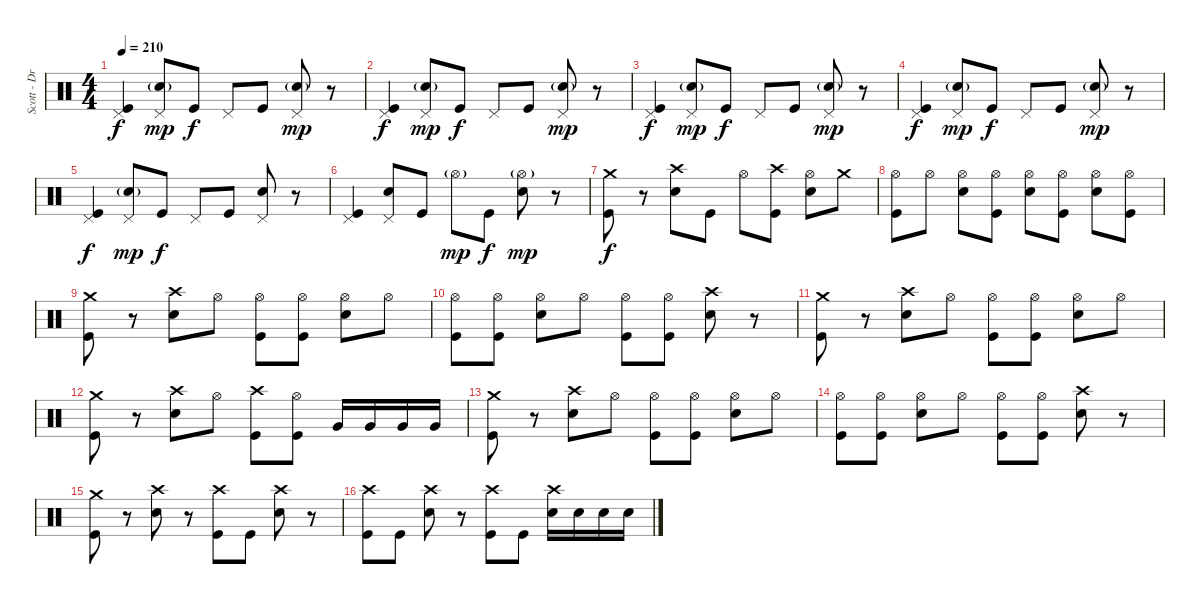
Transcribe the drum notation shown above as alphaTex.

\track ("Scott - Drums" "Scott - Dr") {instrument percussion}
\staff {score}
\articulation defaults
\ts (4 4)
\tempo 210
\clef neutral
\ks c
("Pedal Hi-Hat (hit)" "Kick (hit)").4{dy f} ("Pedal Hi-Hat (hit)" "Electric Snare (hit)"{g}).8{dy mp} "Kick (hit)".8{dy f} "Pedal Hi-Hat (hit)".8 "Kick (hit)".8 ("Pedal Hi-Hat (hit)" "Electric Snare (hit)"{g}).8{dy mp} r.8 |
("Pedal Hi-Hat (hit)" "Kick (hit)").4{dy f} ("Pedal Hi-Hat (hit)" "Electric Snare (hit)"{g}).8{dy mp} "Kick (hit)".8{dy f} "Pedal Hi-Hat (hit)".8 "Kick (hit)".8 ("Pedal Hi-Hat (hit)" "Electric Snare (hit)"{g}).8{dy mp} r.8 |
("Pedal Hi-Hat (hit)" "Kick (hit)").4{dy f} ("Pedal Hi-Hat (hit)" "Electric Snare (hit)"{g}).8{dy mp} "Kick (hit)".8{dy f} "Pedal Hi-Hat (hit)".8 "Kick (hit)".8 ("Pedal Hi-Hat (hit)" "Electric Snare (hit)"{g}).8{dy mp} r.8 |
("Pedal Hi-Hat (hit)" "Kick (hit)").4{dy f} ("Pedal Hi-Hat (hit)" "Electric Snare (hit)"{g}).8{dy mp} "Kick (hit)".8{dy f} "Pedal Hi-Hat (hit)".8 "Kick (hit)".8 ("Pedal Hi-Hat (hit)" "Electric Snare (hit)"{g}).8{dy mp} r.8 |
("Pedal Hi-Hat (hit)" "Kick (hit)").4{dy f} ("Pedal Hi-Hat (hit)" "Electric Snare (hit)"{g}).8{dy mp} "Kick (hit)".8{dy f} "Pedal Hi-Hat (hit)".8 "Kick (hit)".8 ("Pedal Hi-Hat (hit)" "Electric Snare (hit)").8 r.8 |
("Pedal Hi-Hat (hit)" "Kick (hit)").4 ("Pedal Hi-Hat (hit)" "Electric Snare (hit)").8 "Kick (hit)".8 "Hi-Hat (open)"{g}.8{dy mp} "Kick (hit)".8{dy f} ("Hi-Hat (open)"{g} "Electric Snare (hit)").8{dy mp} r.8 |
("Crash medium (hit)" "Kick (hit)").8{dy f} r.8 ("Crash high (hit)" "Electric Snare (hit)").8 "Kick (hit)".8 "Hi-Hat (open)".8 ("Crash high (hit)" "Kick (hit)").8 ("Hi-Hat (open)" "Electric Snare (hit)").8 "Crash medium (hit)".8 |
("Hi-Hat (open)" "Kick (hit)").8 "Hi-Hat (open)".8 ("Hi-Hat (open)" "Electric Snare (hit)").8 ("Hi-Hat (open)" "Kick (hit)").8 ("Hi-Hat (open)" "Electric Snare (hit)").8 ("Hi-Hat (open)" "Kick (hit)").8 ("Hi-Hat (open)" "Electric Snare (hit)").8 ("Hi-Hat (open)" "Kick (hit)").8 |
("Crash medium (hit)" "Kick (hit)").8 r.8 ("Crash high (hit)" "Electric Snare (hit)").8 "Hi-Hat (open)".8 ("Hi-Hat (open)" "Kick (hit)").8 ("Hi-Hat (open)" "Kick (hit)").8 ("Hi-Hat (open)" "Electric Snare (hit)").8 "Hi-Hat (open)".8 |
("Hi-Hat (open)" "Kick (hit)").8 ("Hi-Hat (open)" "Kick (hit)").8 ("Hi-Hat (open)" "Electric Snare (hit)").8 "Hi-Hat (open)".8 ("Hi-Hat (open)" "Kick (hit)").8 ("Hi-Hat (open)" "Kick (hit)").8 ("Crash high (hit)" "Electric Snare (hit)").8 r.8 |
("Crash medium (hit)" "Kick (hit)").8 r.8 ("Crash high (hit)" "Electric Snare (hit)").8 "Hi-Hat (open)".8 ("Hi-Hat (open)" "Kick (hit)").8 ("Hi-Hat (open)" "Kick (hit)").8 ("Hi-Hat (open)" "Electric Snare (hit)").8 "Hi-Hat (open)".8 |
("Crash medium (hit)" "Kick (hit)").8 r.8 ("Crash high (hit)" "Electric Snare (hit)").8 "Hi-Hat (open)".8 ("Crash high (hit)" "Kick (hit)").8 ("Hi-Hat (open)" "Kick (hit)").8 "Very Low Tom (hit)".16 "Very Low Tom (hit)".16 "Very Low Tom (hit)".16 "Very Low Tom (hit)".16 |
("Crash medium (hit)" "Kick (hit)").8 r.8 ("Crash high (hit)" "Electric Snare (hit)").8 "Hi-Hat (open)".8 ("Hi-Hat (open)" "Kick (hit)").8 ("Hi-Hat (open)" "Kick (hit)").8 ("Hi-Hat (open)" "Electric Snare (hit)").8 "Hi-Hat (open)".8 |
("Hi-Hat (open)" "Kick (hit)").8 ("Hi-Hat (open)" "Kick (hit)").8 ("Hi-Hat (open)" "Electric Snare (hit)").8 "Hi-Hat (open)".8 ("Hi-Hat (open)" "Kick (hit)").8 ("Hi-Hat (open)" "Kick (hit)").8 ("Crash high (hit)" "Electric Snare (hit)").8 r.8 |
("Crash medium (hit)" "Kick (hit)").8 r.8 ("Crash high (hit)" "Electric Snare (hit)").8 r.8 ("Crash high (hit)" "Kick (hit)").8 "Kick (hit)".8 ("Crash high (hit)" "Electric Snare (hit)").8 r.8 |
("Crash high (hit)" "Kick (hit)").8 "Kick (hit)".8 ("Crash high (hit)" "Electric Snare (hit)").8 r.8 ("Crash high (hit)" "Kick (hit)").8 "Kick (hit)".8 ("Crash high (hit)" "Electric Snare (hit)").16 "Electric Snare (hit)".16 "Electric Snare (hit)".16 "Electric Snare (hit)".16
